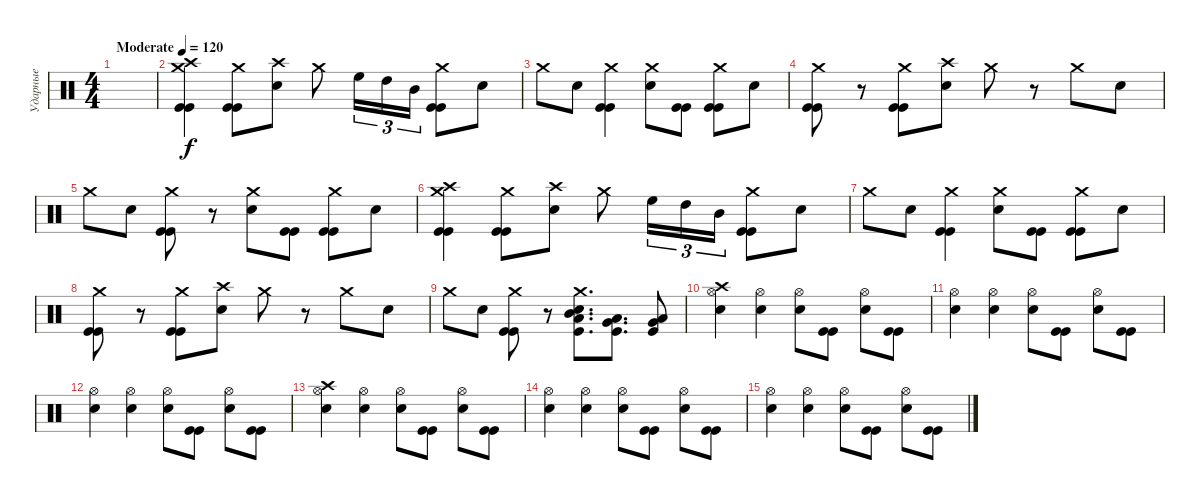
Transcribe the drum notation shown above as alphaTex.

\track ("Ударные" "Ударные") {instrument percussion}
\staff {score}
\articulation defaults
\ts (4 4)
\tempo (120 "Moderate")
\clef neutral
\ks c
|
("Crash high (hit)" "Crash medium (hit)" "Kick (hit)" "Kick (hit)").4 ("Crash medium (hit)" "Kick (hit)" "Kick (hit)").8 ("Crash high (hit)" "Electric Snare (hit)").8 "Crash medium (hit)".8 "High Floor Tom (hit)".16{tu (3 2)} "High Tom (hit)".16{tu (3 2)} "Mid Tom (hit)".16{tu (3 2)} ("Crash medium (hit)" "Kick (hit)" "Kick (hit)").8 "Electric Snare (hit)".8 |
"Crash medium (hit)".8 "Electric Snare (hit)".8 ("Crash medium (hit)" "Kick (hit)" "Kick (hit)").4 ("Crash medium (hit)" "Electric Snare (hit)").8 ("Kick (hit)" "Kick (hit)").8 ("Crash medium (hit)" "Kick (hit)" "Kick (hit)").8 "Electric Snare (hit)".8 |
("Crash medium (hit)" "Kick (hit)" "Kick (hit)").8 r.8 ("Crash medium (hit)" "Kick (hit)" "Kick (hit)").8 ("Crash high (hit)" "Electric Snare (hit)").8 "Crash medium (hit)".8 r.8 "Crash medium (hit)".8 "Electric Snare (hit)".8 |
"Crash medium (hit)".8 "Electric Snare (hit)".8 ("Crash medium (hit)" "Kick (hit)" "Kick (hit)").8 r.8 ("Crash medium (hit)" "Electric Snare (hit)").8 ("Kick (hit)" "Kick (hit)").8 ("Crash medium (hit)" "Kick (hit)" "Kick (hit)").8 "Electric Snare (hit)".8 |
("Crash high (hit)" "Crash medium (hit)" "Kick (hit)" "Kick (hit)").4 ("Crash medium (hit)" "Kick (hit)" "Kick (hit)").8 ("Crash high (hit)" "Electric Snare (hit)").8 "Crash medium (hit)".8 "High Floor Tom (hit)".16{tu (3 2)} "High Tom (hit)".16{tu (3 2)} "Mid Tom (hit)".16{tu (3 2)} ("Crash medium (hit)" "Kick (hit)" "Kick (hit)").8 "Electric Snare (hit)".8 |
"Crash medium (hit)".8 "Electric Snare (hit)".8 ("Crash medium (hit)" "Kick (hit)" "Kick (hit)").4 ("Crash medium (hit)" "Electric Snare (hit)").8 ("Kick (hit)" "Kick (hit)").8 ("Crash medium (hit)" "Kick (hit)" "Kick (hit)").8 "Electric Snare (hit)".8 |
("Crash medium (hit)" "Kick (hit)" "Kick (hit)").8 r.8 ("Crash medium (hit)" "Kick (hit)" "Kick (hit)").8 ("Crash high (hit)" "Electric Snare (hit)").8 "Crash medium (hit)".8 r.8 "Crash medium (hit)".8 "Electric Snare (hit)".8 |
"Crash medium (hit)".8 "Electric Snare (hit)".8 ("Crash medium (hit)" "Kick (hit)" "Kick (hit)").8 r.8 ("Crash medium (hit)" "Electric Snare (hit)" "Low Tom (hit)" "Mid Tom (hit)" "Kick (hit)").8{d} ("Very Low Tom (hit)" "Low Tom (hit)" "Kick (hit)").8{d} ("Very Low Tom (hit)" "Low Floor Tom (hit)" "Kick (hit)").8 |
("Crash high (hit)" "Hi-Hat (open)" "Electric Snare (hit)").4 ("Hi-Hat (open)" "Electric Snare (hit)").4 ("Hi-Hat (open)" "Electric Snare (hit)").8 ("Kick (hit)" "Kick (hit)").8 ("Hi-Hat (open)" "Electric Snare (hit)").8 ("Kick (hit)" "Kick (hit)").8 |
("Hi-Hat (open)" "Electric Snare (hit)").4 ("Hi-Hat (open)" "Electric Snare (hit)").4 ("Hi-Hat (open)" "Electric Snare (hit)").8 ("Kick (hit)" "Kick (hit)").8 ("Hi-Hat (open)" "Electric Snare (hit)").8 ("Kick (hit)" "Kick (hit)").8 |
("Hi-Hat (open)" "Electric Snare (hit)").4 ("Hi-Hat (open)" "Electric Snare (hit)").4 ("Hi-Hat (open)" "Electric Snare (hit)").8 ("Kick (hit)" "Kick (hit)").8 ("Hi-Hat (open)" "Electric Snare (hit)").8 ("Kick (hit)" "Kick (hit)").8 |
("Crash high (hit)" "Hi-Hat (open)" "Electric Snare (hit)").4 ("Hi-Hat (open)" "Electric Snare (hit)").4 ("Hi-Hat (open)" "Electric Snare (hit)").8 ("Kick (hit)" "Kick (hit)").8 ("Hi-Hat (open)" "Electric Snare (hit)").8 ("Kick (hit)" "Kick (hit)").8 |
("Hi-Hat (open)" "Electric Snare (hit)").4 ("Hi-Hat (open)" "Electric Snare (hit)").4 ("Hi-Hat (open)" "Electric Snare (hit)").8 ("Kick (hit)" "Kick (hit)").8 ("Hi-Hat (open)" "Electric Snare (hit)").8 ("Kick (hit)" "Kick (hit)").8 |
("Hi-Hat (open)" "Electric Snare (hit)").4 ("Hi-Hat (open)" "Electric Snare (hit)").4 ("Hi-Hat (open)" "Electric Snare (hit)").8 ("Kick (hit)" "Kick (hit)").8 ("Hi-Hat (open)" "Electric Snare (hit)").8 ("Kick (hit)" "Kick (hit)").8
